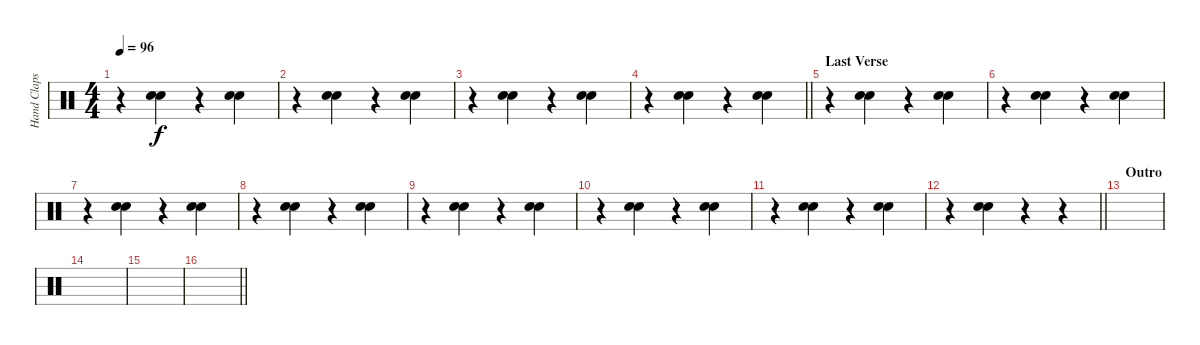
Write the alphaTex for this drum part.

\track ("Hand Claps" "Hand Claps") {instrument percussion}
\staff {score}
\articulation defaults
\ts (4 4)
\tempo 96
\clef neutral
\ks c
r.4{dy f} ("Hand Clap (hit)" "Hand Clap (hit)").4 r.4 ("Hand Clap (hit)" "Hand Clap (hit)").4 |
r.4 ("Hand Clap (hit)" "Hand Clap (hit)").4 r.4 ("Hand Clap (hit)" "Hand Clap (hit)").4 |
r.4 ("Hand Clap (hit)" "Hand Clap (hit)").4 r.4 ("Hand Clap (hit)" "Hand Clap (hit)").4 |
\barLineRight lightlight
r.4 ("Hand Clap (hit)" "Hand Clap (hit)").4 r.4 ("Hand Clap (hit)" "Hand Clap (hit)").4 |
\section ("" "Last Verse")
r.4 ("Hand Clap (hit)" "Hand Clap (hit)").4 r.4 ("Hand Clap (hit)" "Hand Clap (hit)").4 |
r.4 ("Hand Clap (hit)" "Hand Clap (hit)").4 r.4 ("Hand Clap (hit)" "Hand Clap (hit)").4 |
r.4 ("Hand Clap (hit)" "Hand Clap (hit)").4 r.4 ("Hand Clap (hit)" "Hand Clap (hit)").4 |
r.4 ("Hand Clap (hit)" "Hand Clap (hit)").4 r.4 ("Hand Clap (hit)" "Hand Clap (hit)").4 |
r.4 ("Hand Clap (hit)" "Hand Clap (hit)").4 r.4 ("Hand Clap (hit)" "Hand Clap (hit)").4 |
r.4 ("Hand Clap (hit)" "Hand Clap (hit)").4 r.4 ("Hand Clap (hit)" "Hand Clap (hit)").4 |
r.4 ("Hand Clap (hit)" "Hand Clap (hit)").4 r.4 ("Hand Clap (hit)" "Hand Clap (hit)").4 |
\barLineRight lightlight
r.4 ("Hand Clap (hit)" "Hand Clap (hit)").4 r.4 r.4 |
\section ("" "Outro")
|
|
|
\barLineRight lightlight
